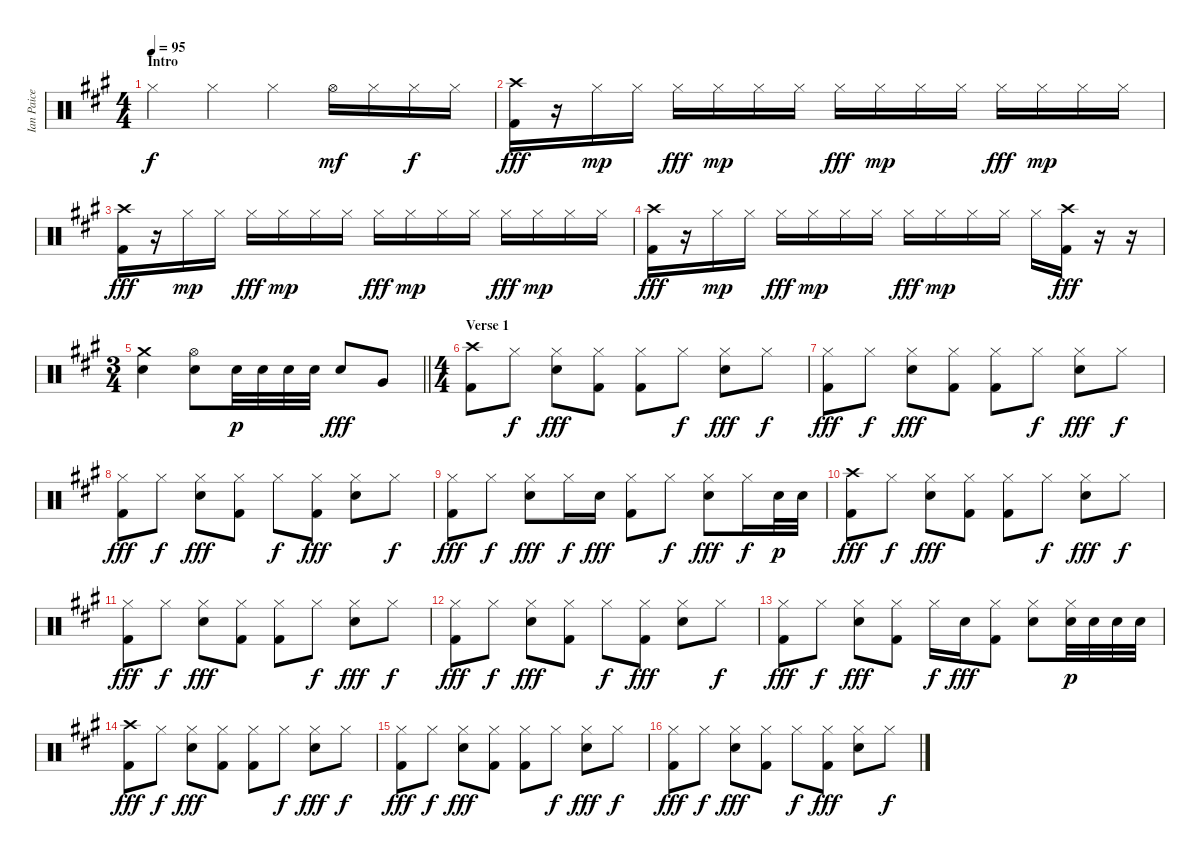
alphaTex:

\track ("Ian Paice" "Ian Paice") {instrument percussion}
\staff {score}
\articulation defaults
\ts (4 4)
\section ("" "Intro")
\tempo 95
\clef neutral
\ks f#minor "Hi-Hat (closed)".4{dy f} "Hi-Hat (closed)".4 "Hi-Hat (closed)".4 "Hi-Hat (open)".16{dy mf} "Hi-Hat (closed)".16 "Hi-Hat (closed)".16{dy f} "Hi-Hat (closed)".16
|
("Crash high (hit)" "Kick (hit) 2").16{dy fff} r.16 "Hi-Hat (closed)".16{dy mp} "Hi-Hat (closed)".16 "Hi-Hat (closed)".16{dy fff} "Hi-Hat (closed)".16{dy mp} "Hi-Hat (closed)".16 "Hi-Hat (closed)".16 "Hi-Hat (closed)".16{dy fff} "Hi-Hat (closed)".16{dy mp} "Hi-Hat (closed)".16 "Hi-Hat (closed)".16 "Hi-Hat (closed)".16{dy fff} "Hi-Hat (closed)".16{dy mp} "Hi-Hat (closed)".16 "Hi-Hat (closed)".16 |
("Crash high (hit)" "Kick (hit) 2").16{dy fff} r.16 "Hi-Hat (closed)".16{dy mp} "Hi-Hat (closed)".16 "Hi-Hat (closed)".16{dy fff} "Hi-Hat (closed)".16{dy mp} "Hi-Hat (closed)".16 "Hi-Hat (closed)".16 "Hi-Hat (closed)".16{dy fff} "Hi-Hat (closed)".16{dy mp} "Hi-Hat (closed)".16 "Hi-Hat (closed)".16 "Hi-Hat (closed)".16{dy fff} "Hi-Hat (closed)".16{dy mp} "Hi-Hat (closed)".16 "Hi-Hat (closed)".16 |
("Crash high (hit)" "Kick (hit) 2").16{dy fff} r.16 "Hi-Hat (closed)".16{dy mp} "Hi-Hat (closed)".16 "Hi-Hat (closed)".16{dy fff} "Hi-Hat (closed)".16{dy mp} "Hi-Hat (closed)".16 "Hi-Hat (closed)".16 "Hi-Hat (closed)".16{dy fff} "Hi-Hat (closed)".16{dy mp} "Hi-Hat (closed)".16 "Hi-Hat (closed)".16 "Hi-Hat (closed)".16 ("Crash high (hit)" "Kick (hit) 2").16{dy fff} r.16 r.16 |
\ts (3 4)
\barLineRight lightlight
("Crash medium (hit)" "Snare (hit) 2").4 ("Hi-Hat (open)" "Snare (hit) 2").8 "Snare (hit) 2".32{dy p} "Snare (hit) 2".32 "Snare (hit) 2".32 "Snare (hit) 2".32 "Snare (hit) 2".8{dy fff} "Very Low Tom (hit)".8 |
\ts (4 4)
\section ("" "Verse 1")
("Crash high (hit)" "Kick (hit) 2").8 "Hi-Hat (closed)".8{dy f} ("Hi-Hat (closed)" "Snare (hit) 2").8{dy fff} ("Hi-Hat (closed)" "Kick (hit) 2").8 ("Hi-Hat (closed)" "Kick (hit) 2").8 "Hi-Hat (closed)".8{dy f} ("Hi-Hat (closed)" "Snare (hit) 2").8{dy fff} "Hi-Hat (closed)".8{dy f} |
("Hi-Hat (closed)" "Kick (hit) 2").8{dy fff} "Hi-Hat (closed)".8{dy f} ("Hi-Hat (closed)" "Snare (hit) 2").8{dy fff} ("Hi-Hat (closed)" "Kick (hit) 2").8 ("Hi-Hat (closed)" "Kick (hit) 2").8 "Hi-Hat (closed)".8{dy f} ("Hi-Hat (closed)" "Snare (hit) 2").8{dy fff} "Hi-Hat (closed)".8{dy f} |
("Hi-Hat (closed)" "Kick (hit) 2").8{dy fff} "Hi-Hat (closed)".8{dy f} ("Hi-Hat (closed)" "Snare (hit) 2").8{dy fff} ("Hi-Hat (closed)" "Kick (hit) 2").8 "Hi-Hat (closed)".8{dy f} ("Hi-Hat (closed)" "Kick (hit) 2").8{dy fff} ("Hi-Hat (closed)" "Snare (hit) 2").8 "Hi-Hat (closed)".8{dy f} |
("Hi-Hat (closed)" "Kick (hit) 2").8{dy fff} "Hi-Hat (closed)".8{dy f} ("Hi-Hat (closed)" "Snare (hit) 2").8{dy fff} "Hi-Hat (closed)".16{dy f} "Snare (hit) 2".16{dy fff} ("Hi-Hat (closed)" "Kick (hit) 2").8 "Hi-Hat (closed)".8{dy f} ("Hi-Hat (closed)" "Snare (hit) 2").8{dy fff} "Hi-Hat (closed)".16{dy f} "Snare (hit) 2".32{dy p} "Snare (hit) 2".32 |
("Crash high (hit)" "Kick (hit) 2").8{dy fff} "Hi-Hat (closed)".8{dy f} ("Hi-Hat (closed)" "Snare (hit) 2").8{dy fff} ("Hi-Hat (closed)" "Kick (hit) 2").8 ("Hi-Hat (closed)" "Kick (hit) 2").8 "Hi-Hat (closed)".8{dy f} ("Hi-Hat (closed)" "Snare (hit) 2").8{dy fff} "Hi-Hat (closed)".8{dy f} |
("Hi-Hat (closed)" "Kick (hit) 2").8{dy fff} "Hi-Hat (closed)".8{dy f} ("Hi-Hat (closed)" "Snare (hit) 2").8{dy fff} ("Hi-Hat (closed)" "Kick (hit) 2").8 ("Hi-Hat (closed)" "Kick (hit) 2").8 "Hi-Hat (closed)".8{dy f} ("Hi-Hat (closed)" "Snare (hit) 2").8{dy fff} "Hi-Hat (closed)".8{dy f} |
("Hi-Hat (closed)" "Kick (hit) 2").8{dy fff} "Hi-Hat (closed)".8{dy f} ("Hi-Hat (closed)" "Snare (hit) 2").8{dy fff} ("Hi-Hat (closed)" "Kick (hit) 2").8 "Hi-Hat (closed)".8{dy f} ("Hi-Hat (closed)" "Kick (hit) 2").8{dy fff} ("Hi-Hat (closed)" "Snare (hit) 2").8 "Hi-Hat (closed)".8{dy f} |
("Hi-Hat (closed)" "Kick (hit) 2").8{dy fff} "Hi-Hat (closed)".8{dy f} ("Hi-Hat (closed)" "Snare (hit) 2").8{dy fff} ("Hi-Hat (closed)" "Kick (hit) 2").8 "Hi-Hat (closed)".16{dy f} "Snare (hit) 2".16{dy fff} ("Hi-Hat (closed)" "Kick (hit) 2").8 ("Hi-Hat (closed)" "Snare (hit) 2").8 ("Hi-Hat (closed)" "Snare (hit) 2").32{dy p} "Snare (hit) 2".32 "Snare (hit) 2".32 "Snare (hit) 2".32 |
("Crash high (hit)" "Kick (hit) 2").8{dy fff} "Hi-Hat (closed)".8{dy f} ("Hi-Hat (closed)" "Snare (hit) 2").8{dy fff} ("Hi-Hat (closed)" "Kick (hit) 2").8 ("Hi-Hat (closed)" "Kick (hit) 2").8 "Hi-Hat (closed)".8{dy f} ("Hi-Hat (closed)" "Snare (hit) 2").8{dy fff} "Hi-Hat (closed)".8{dy f} |
("Hi-Hat (closed)" "Kick (hit) 2").8{dy fff} "Hi-Hat (closed)".8{dy f} ("Hi-Hat (closed)" "Snare (hit) 2").8{dy fff} ("Hi-Hat (closed)" "Kick (hit) 2").8 ("Hi-Hat (closed)" "Kick (hit) 2").8 "Hi-Hat (closed)".8{dy f} ("Hi-Hat (closed)" "Snare (hit) 2").8{dy fff} "Hi-Hat (closed)".8{dy f} |
("Hi-Hat (closed)" "Kick (hit) 2").8{dy fff} "Hi-Hat (closed)".8{dy f} ("Hi-Hat (closed)" "Snare (hit) 2").8{dy fff} ("Hi-Hat (closed)" "Kick (hit) 2").8 "Hi-Hat (closed)".8{dy f} ("Hi-Hat (closed)" "Kick (hit) 2").8{dy fff} ("Hi-Hat (closed)" "Snare (hit) 2").8 "Hi-Hat (closed)".8{dy f}
